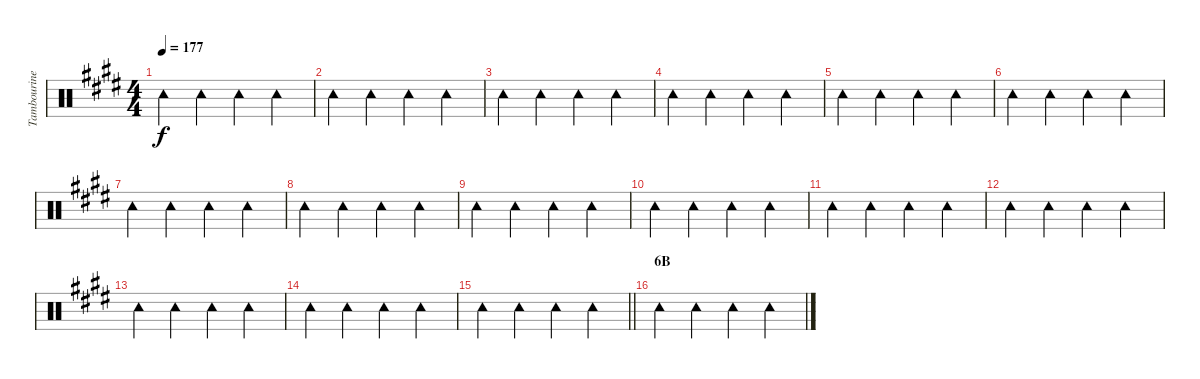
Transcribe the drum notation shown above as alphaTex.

\track ("Tambourine" "Tambourine") {instrument percussion}
\staff {score}
\articulation defaults
\ts (4 4)
\tempo 177
\clef neutral
\ks e "Tambourine (hit)".4{dy f} "Tambourine (hit)".4 "Tambourine (hit)".4 "Tambourine (hit)".4
|
"Tambourine (hit)".4 "Tambourine (hit)".4 "Tambourine (hit)".4 "Tambourine (hit)".4 |
"Tambourine (hit)".4 "Tambourine (hit)".4 "Tambourine (hit)".4 "Tambourine (hit)".4 |
"Tambourine (hit)".4 "Tambourine (hit)".4 "Tambourine (hit)".4 "Tambourine (hit)".4 |
"Tambourine (hit)".4 "Tambourine (hit)".4 "Tambourine (hit)".4 "Tambourine (hit)".4 |
"Tambourine (hit)".4 "Tambourine (hit)".4 "Tambourine (hit)".4 "Tambourine (hit)".4 |
"Tambourine (hit)".4 "Tambourine (hit)".4 "Tambourine (hit)".4 "Tambourine (hit)".4 |
"Tambourine (hit)".4 "Tambourine (hit)".4 "Tambourine (hit)".4 "Tambourine (hit)".4 |
"Tambourine (hit)".4 "Tambourine (hit)".4 "Tambourine (hit)".4 "Tambourine (hit)".4 |
"Tambourine (hit)".4 "Tambourine (hit)".4 "Tambourine (hit)".4 "Tambourine (hit)".4 |
"Tambourine (hit)".4 "Tambourine (hit)".4 "Tambourine (hit)".4 "Tambourine (hit)".4 |
"Tambourine (hit)".4 "Tambourine (hit)".4 "Tambourine (hit)".4 "Tambourine (hit)".4 |
"Tambourine (hit)".4 "Tambourine (hit)".4 "Tambourine (hit)".4 "Tambourine (hit)".4 |
"Tambourine (hit)".4 "Tambourine (hit)".4 "Tambourine (hit)".4 "Tambourine (hit)".4 |
\barLineRight lightlight "Tambourine (hit)".4 "Tambourine (hit)".4 "Tambourine (hit)".4 "Tambourine (hit)".4
|
\section ("" "6B")
"Tambourine (hit)".4 "Tambourine (hit)".4 "Tambourine (hit)".4 "Tambourine (hit)".4
